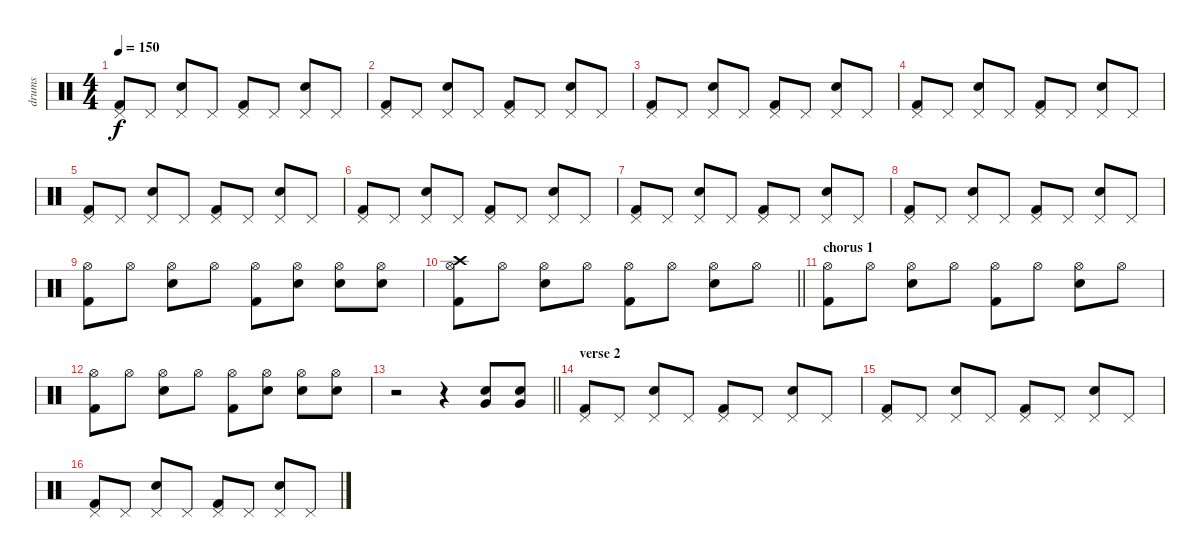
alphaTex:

\track ("drums" "drums") {instrument percussion}
\staff {score}
\articulation defaults
\ts (4 4)
\tempo 150
\clef neutral
\ks c
("Kick (hit) 2" "Pedal Hi-Hat (hit)").8{dy f} "Pedal Hi-Hat (hit)".8 ("Electric Snare (hit)" "Pedal Hi-Hat (hit)").8 "Pedal Hi-Hat (hit)".8 ("Kick (hit) 2" "Pedal Hi-Hat (hit)").8 "Pedal Hi-Hat (hit)".8 ("Electric Snare (hit)" "Pedal Hi-Hat (hit)").8 "Pedal Hi-Hat (hit)".8 |
("Kick (hit) 2" "Pedal Hi-Hat (hit)").8 "Pedal Hi-Hat (hit)".8 ("Electric Snare (hit)" "Pedal Hi-Hat (hit)").8 "Pedal Hi-Hat (hit)".8 ("Kick (hit) 2" "Pedal Hi-Hat (hit)").8 "Pedal Hi-Hat (hit)".8 ("Electric Snare (hit)" "Pedal Hi-Hat (hit)").8 "Pedal Hi-Hat (hit)".8 |
("Kick (hit) 2" "Pedal Hi-Hat (hit)").8 "Pedal Hi-Hat (hit)".8 ("Electric Snare (hit)" "Pedal Hi-Hat (hit)").8 "Pedal Hi-Hat (hit)".8 ("Kick (hit) 2" "Pedal Hi-Hat (hit)").8 "Pedal Hi-Hat (hit)".8 ("Electric Snare (hit)" "Pedal Hi-Hat (hit)").8 "Pedal Hi-Hat (hit)".8 |
("Kick (hit) 2" "Pedal Hi-Hat (hit)").8 "Pedal Hi-Hat (hit)".8 ("Electric Snare (hit)" "Pedal Hi-Hat (hit)").8 "Pedal Hi-Hat (hit)".8 ("Kick (hit) 2" "Pedal Hi-Hat (hit)").8 "Pedal Hi-Hat (hit)".8 ("Electric Snare (hit)" "Pedal Hi-Hat (hit)").8 "Pedal Hi-Hat (hit)".8 |
("Kick (hit) 2" "Pedal Hi-Hat (hit)").8 "Pedal Hi-Hat (hit)".8 ("Electric Snare (hit)" "Pedal Hi-Hat (hit)").8 "Pedal Hi-Hat (hit)".8 ("Kick (hit) 2" "Pedal Hi-Hat (hit)").8 "Pedal Hi-Hat (hit)".8 ("Electric Snare (hit)" "Pedal Hi-Hat (hit)").8 "Pedal Hi-Hat (hit)".8 |
("Kick (hit) 2" "Pedal Hi-Hat (hit)").8 "Pedal Hi-Hat (hit)".8 ("Electric Snare (hit)" "Pedal Hi-Hat (hit)").8 "Pedal Hi-Hat (hit)".8 ("Kick (hit) 2" "Pedal Hi-Hat (hit)").8 "Pedal Hi-Hat (hit)".8 ("Electric Snare (hit)" "Pedal Hi-Hat (hit)").8 "Pedal Hi-Hat (hit)".8 |
("Kick (hit) 2" "Pedal Hi-Hat (hit)").8 "Pedal Hi-Hat (hit)".8 ("Electric Snare (hit)" "Pedal Hi-Hat (hit)").8 "Pedal Hi-Hat (hit)".8 ("Kick (hit) 2" "Pedal Hi-Hat (hit)").8 "Pedal Hi-Hat (hit)".8 ("Electric Snare (hit)" "Pedal Hi-Hat (hit)").8 "Pedal Hi-Hat (hit)".8 |
("Kick (hit) 2" "Pedal Hi-Hat (hit)").8 "Pedal Hi-Hat (hit)".8 ("Electric Snare (hit)" "Pedal Hi-Hat (hit)").8 "Pedal Hi-Hat (hit)".8 ("Kick (hit) 2" "Pedal Hi-Hat (hit)").8 "Pedal Hi-Hat (hit)".8 ("Electric Snare (hit)" "Pedal Hi-Hat (hit)").8 "Pedal Hi-Hat (hit)".8 |
("Kick (hit) 2" "Hi-Hat (open)").8 "Hi-Hat (open)".8 ("Electric Snare (hit)" "Hi-Hat (open)").8 "Hi-Hat (open)".8 ("Kick (hit) 2" "Hi-Hat (open)").8 ("Electric Snare (hit)" "Hi-Hat (open)").8{volume 16} ("Electric Snare (hit)" "Hi-Hat (open)").8 ("Electric Snare (hit)" "Hi-Hat (open)").8 |
\barLineRight lightlight
("Kick (hit) 2" "Hi-Hat (open)" "Crash high (hit)").8 "Hi-Hat (open)".8 ("Electric Snare (hit)" "Hi-Hat (open)").8 "Hi-Hat (open)".8 ("Kick (hit) 2" "Hi-Hat (open)").8 "Hi-Hat (open)".8 ("Electric Snare (hit)" "Hi-Hat (open)").8 "Hi-Hat (open)".8 |
\section ("" "chorus 1")
("Kick (hit) 2" "Hi-Hat (open)").8 "Hi-Hat (open)".8 ("Electric Snare (hit)" "Hi-Hat (open)").8 "Hi-Hat (open)".8 ("Kick (hit) 2" "Hi-Hat (open)").8 "Hi-Hat (open)".8 ("Electric Snare (hit)" "Hi-Hat (open)").8 "Hi-Hat (open)".8 |
("Kick (hit) 2" "Hi-Hat (open)").8 "Hi-Hat (open)".8 ("Electric Snare (hit)" "Hi-Hat (open)").8 "Hi-Hat (open)".8 ("Kick (hit) 2" "Hi-Hat (open)").8 ("Electric Snare (hit)" "Hi-Hat (open)").8 ("Electric Snare (hit)" "Hi-Hat (open)").8 ("Electric Snare (hit)" "Hi-Hat (open)").8 |
\barLineRight lightlight
r.2 r.4 ("Electric Snare (hit)" "Very Low Tom (hit)").8{volume 12} ("Electric Snare (hit)" "Very Low Tom (hit)").8 |
\section ("" "verse 2")
("Kick (hit) 2" "Pedal Hi-Hat (hit)").8 "Pedal Hi-Hat (hit)".8 ("Electric Snare (hit)" "Pedal Hi-Hat (hit)").8 "Pedal Hi-Hat (hit)".8 ("Kick (hit) 2" "Pedal Hi-Hat (hit)").8 "Pedal Hi-Hat (hit)".8 ("Electric Snare (hit)" "Pedal Hi-Hat (hit)").8 "Pedal Hi-Hat (hit)".8 |
("Kick (hit) 2" "Pedal Hi-Hat (hit)").8 "Pedal Hi-Hat (hit)".8 ("Electric Snare (hit)" "Pedal Hi-Hat (hit)").8 "Pedal Hi-Hat (hit)".8 ("Kick (hit) 2" "Pedal Hi-Hat (hit)").8 "Pedal Hi-Hat (hit)".8 ("Electric Snare (hit)" "Pedal Hi-Hat (hit)").8 "Pedal Hi-Hat (hit)".8 |
("Kick (hit) 2" "Pedal Hi-Hat (hit)").8 "Pedal Hi-Hat (hit)".8 ("Electric Snare (hit)" "Pedal Hi-Hat (hit)").8 "Pedal Hi-Hat (hit)".8 ("Kick (hit) 2" "Pedal Hi-Hat (hit)").8 "Pedal Hi-Hat (hit)".8 ("Electric Snare (hit)" "Pedal Hi-Hat (hit)").8 "Pedal Hi-Hat (hit)".8
